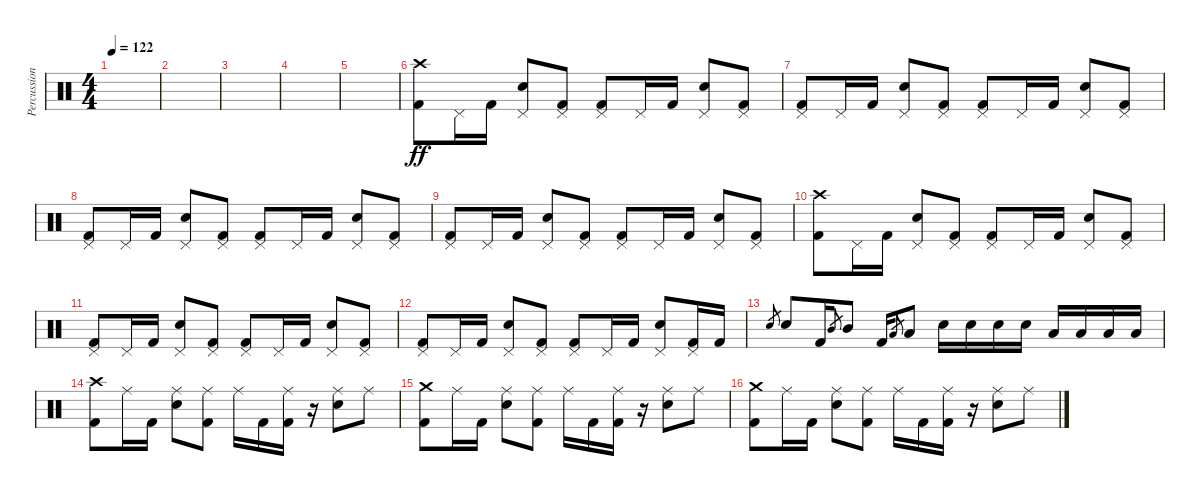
\track ("Percussion" "Percussion") {instrument percussion}
\staff {score}
\articulation defaults
\ts (4 4)
\tempo 122
\clef neutral
\ks c
|
|
|
|
|
("Crash high (hit)" "Kick (hit) 2").8{dy ff} "Pedal Hi-Hat (hit)".16 "Kick (hit) 2".16 ("Pedal Hi-Hat (hit)" "Electric Snare (hit)").8 ("Pedal Hi-Hat (hit)" "Kick (hit) 2").8 ("Pedal Hi-Hat (hit)" "Kick (hit) 2").8 "Pedal Hi-Hat (hit)".16 "Kick (hit) 2".16 ("Pedal Hi-Hat (hit)" "Electric Snare (hit)").8 ("Pedal Hi-Hat (hit)" "Kick (hit) 2").8 |
("Pedal Hi-Hat (hit)" "Kick (hit) 2").8 "Pedal Hi-Hat (hit)".16 "Kick (hit) 2".16 ("Pedal Hi-Hat (hit)" "Electric Snare (hit)").8 ("Pedal Hi-Hat (hit)" "Kick (hit) 2").8 ("Pedal Hi-Hat (hit)" "Kick (hit) 2").8 "Pedal Hi-Hat (hit)".16 "Kick (hit) 2".16 ("Pedal Hi-Hat (hit)" "Electric Snare (hit)").8 ("Pedal Hi-Hat (hit)" "Kick (hit) 2").8 |
("Pedal Hi-Hat (hit)" "Kick (hit) 2").8 "Pedal Hi-Hat (hit)".16 "Kick (hit) 2".16 ("Pedal Hi-Hat (hit)" "Electric Snare (hit)").8 ("Pedal Hi-Hat (hit)" "Kick (hit) 2").8 ("Pedal Hi-Hat (hit)" "Kick (hit) 2").8 "Pedal Hi-Hat (hit)".16 "Kick (hit) 2".16 ("Pedal Hi-Hat (hit)" "Electric Snare (hit)").8 ("Pedal Hi-Hat (hit)" "Kick (hit) 2").8 |
("Pedal Hi-Hat (hit)" "Kick (hit) 2").8 "Pedal Hi-Hat (hit)".16 "Kick (hit) 2".16 ("Pedal Hi-Hat (hit)" "Electric Snare (hit)").8 ("Pedal Hi-Hat (hit)" "Kick (hit) 2").8 ("Pedal Hi-Hat (hit)" "Kick (hit) 2").8 "Pedal Hi-Hat (hit)".16 "Kick (hit) 2".16 ("Pedal Hi-Hat (hit)" "Electric Snare (hit)").8 ("Pedal Hi-Hat (hit)" "Kick (hit) 2").8 |
("Crash high (hit)" "Kick (hit) 2").8 "Pedal Hi-Hat (hit)".16 "Kick (hit) 2".16 ("Pedal Hi-Hat (hit)" "Electric Snare (hit)").8 ("Pedal Hi-Hat (hit)" "Kick (hit) 2").8 ("Pedal Hi-Hat (hit)" "Kick (hit) 2").8 "Pedal Hi-Hat (hit)".16 "Kick (hit) 2".16 ("Pedal Hi-Hat (hit)" "Electric Snare (hit)").8 ("Pedal Hi-Hat (hit)" "Kick (hit) 2").8 |
("Pedal Hi-Hat (hit)" "Kick (hit) 2").8 "Pedal Hi-Hat (hit)".16 "Kick (hit) 2".16 ("Pedal Hi-Hat (hit)" "Electric Snare (hit)").8 ("Pedal Hi-Hat (hit)" "Kick (hit) 2").8 ("Pedal Hi-Hat (hit)" "Kick (hit) 2").8 "Pedal Hi-Hat (hit)".16 "Kick (hit) 2".16 ("Pedal Hi-Hat (hit)" "Electric Snare (hit)").8 ("Pedal Hi-Hat (hit)" "Kick (hit) 2").8 |
("Pedal Hi-Hat (hit)" "Kick (hit) 2").8 "Pedal Hi-Hat (hit)".16 "Kick (hit) 2".16 ("Pedal Hi-Hat (hit)" "Electric Snare (hit)").8 ("Pedal Hi-Hat (hit)" "Kick (hit) 2").8 ("Pedal Hi-Hat (hit)" "Kick (hit) 2").8 "Pedal Hi-Hat (hit)".16 "Kick (hit) 2".16 ("Pedal Hi-Hat (hit)" "Electric Snare (hit)").8 ("Pedal Hi-Hat (hit)" "Kick (hit) 2").16 "Kick (hit) 2".16 |
"Electric Snare (hit)".8{gr} "Electric Snare (hit)".8 "Kick (hit) 2".16 "Mid Tom (hit)".8{gr} "Mid Tom (hit)".8 "Kick (hit) 2".16 "Low Tom (hit)".8{gr} "Low Tom (hit)".8 "Electric Snare (hit)".16 "Electric Snare (hit)".16 "Electric Snare (hit)".16 "Electric Snare (hit)".16 "Low Tom (hit)".16 "Low Tom (hit)".16 "Low Floor Tom (hit)".16 "Low Floor Tom (hit)".16 |
("Crash high (hit)" "Kick (hit) 2").8 "Ride (middle)".16 "Kick (hit) 2".16 ("Ride (middle)" "Electric Snare (hit)").8 ("Ride (middle)" "Kick (hit) 2").8 "Ride (middle)".16 "Kick (hit) 2".16 ("Ride (middle)" "Kick (hit) 2").16 r.16 ("Ride (middle)" "Electric Snare (hit)").8 "Ride (middle)".8 |
("Crash medium (hit)" "Kick (hit) 2").8 "Ride (middle)".16 "Kick (hit) 2".16 ("Ride (middle)" "Electric Snare (hit)").8 ("Ride (middle)" "Kick (hit) 2").8 "Ride (middle)".16 "Kick (hit) 2".16 ("Ride (middle)" "Kick (hit) 2").16 r.16 ("Ride (middle)" "Electric Snare (hit)").8 "Ride (middle)".8 |
("Crash medium (hit)" "Kick (hit) 2").8 "Ride (middle)".16 "Kick (hit) 2".16 ("Ride (middle)" "Electric Snare (hit)").8 ("Ride (middle)" "Kick (hit) 2").8 "Ride (middle)".16 "Kick (hit) 2".16 ("Ride (middle)" "Kick (hit) 2").16 r.16 ("Ride (middle)" "Electric Snare (hit)").8 "Ride (middle)".8
